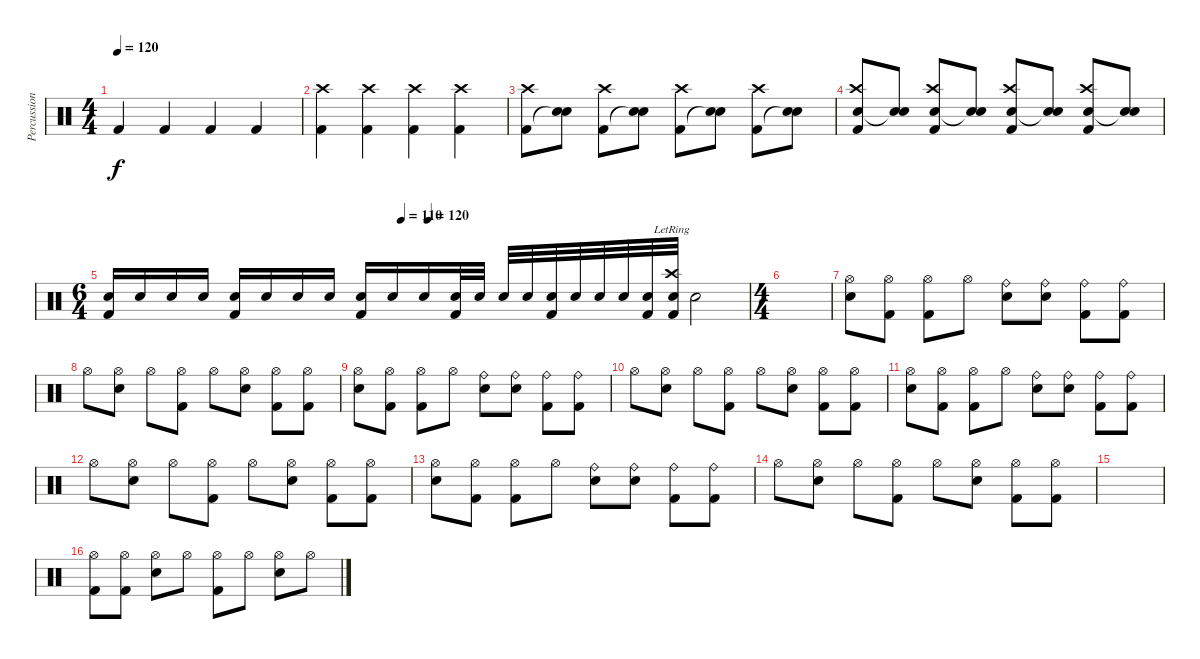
\track ("Percussion" "Percussion") {instrument percussion}
\staff {score}
\articulation defaults
\ts (4 4)
\tempo 120
\clef neutral
\ks c "Kick (hit) 2".4{dy f} "Kick (hit) 2".4 "Kick (hit) 2".4 "Kick (hit) 2".4
|
("Crash high (hit)" "Kick (hit) 2").4 ("Crash high (hit)" "Kick (hit) 2").4 ("Crash high (hit)" "Kick (hit) 2").4 ("Crash high (hit)" "Kick (hit) 2").4 |
("Crash high (hit)" "Kick (hit) 2").8 ("Electric Snare (hit)" "Snare (hit)"{t}).8 ("Crash high (hit)" "Kick (hit) 2").8 ("Electric Snare (hit)" "Snare (hit)"{t}).8 ("Crash high (hit)" "Kick (hit) 2").8 ("Electric Snare (hit)" "Snare (hit)"{t}).8 ("Crash high (hit)" "Kick (hit) 2").8 ("Electric Snare (hit)" "Snare (hit)"{t}).8 |
("Crash high (hit)" "Electric Snare (hit)" "Kick (hit) 2").8 ("Electric Snare (hit)" "Snare (hit)"{t}).8 ("Crash high (hit)" "Electric Snare (hit)" "Kick (hit) 2").8 ("Electric Snare (hit)" "Snare (hit)"{t}).8 ("Crash high (hit)" "Electric Snare (hit)" "Kick (hit) 2").8 ("Electric Snare (hit)" "Snare (hit)"{t}).8 ("Crash high (hit)" "Electric Snare (hit)" "Kick (hit) 2").8 ("Electric Snare (hit)" "Snare (hit)"{t}).8 |
\ts (6 4)
\tempo (110 0.4583333333333333)
\tempo (120 0.5)
("Electric Snare (hit)" "Kick (hit) 2").16 "Electric Snare (hit)".16 "Electric Snare (hit)".16 "Electric Snare (hit)".16 ("Electric Snare (hit)" "Kick (hit) 2").16 "Electric Snare (hit)".16 "Electric Snare (hit)".16 "Electric Snare (hit)".16 ("Electric Snare (hit)" "Kick (hit) 2").16 "Electric Snare (hit)".16 "Electric Snare (hit)".16 ("Electric Snare (hit)" "Kick (hit) 2").32 "Electric Snare (hit)".32 "Electric Snare (hit)".32 "Electric Snare (hit)".32 ("Electric Snare (hit)" "Kick (hit) 2").32 "Electric Snare (hit)".32 "Electric Snare (hit)".32 "Electric Snare (hit)".32 ("Electric Snare (hit)" "Kick (hit) 2").32 ("Crash high (hit)"{lr} "Electric Snare (hit)" "Kick (hit) 2").32 "Snare (hit)"{x}.2 |
\ts (4 4)
|
("Hi-Hat (open)" "Snare (hit) 2").8 ("Hi-Hat (open)" "Kick (hit) 2").8 ("Hi-Hat (open)" "Kick (hit) 2").8 "Hi-Hat (open)".8 ("Ride (bell)" "Snare (hit) 2").8 ("Ride (bell)" "Snare (hit) 2").8 ("Ride (bell)" "Kick (hit) 2").8 ("Ride (bell)" "Kick (hit) 2").8 |
"Hi-Hat (open)".8 ("Hi-Hat (open)" "Snare (hit) 2").8 "Hi-Hat (open)".8 ("Hi-Hat (open)" "Kick (hit) 2").8 "Hi-Hat (open)".8 ("Hi-Hat (open)" "Snare (hit) 2").8 ("Hi-Hat (open)" "Kick (hit) 2").8 ("Hi-Hat (open)" "Kick (hit) 2").8 |
("Hi-Hat (open)" "Snare (hit) 2").8 ("Hi-Hat (open)" "Kick (hit) 2").8 ("Hi-Hat (open)" "Kick (hit) 2").8 "Hi-Hat (open)".8 ("Ride (bell)" "Snare (hit) 2").8 ("Ride (bell)" "Snare (hit) 2").8 ("Ride (bell)" "Kick (hit) 2").8 ("Ride (bell)" "Kick (hit) 2").8 |
"Hi-Hat (open)".8 ("Hi-Hat (open)" "Snare (hit) 2").8 "Hi-Hat (open)".8 ("Hi-Hat (open)" "Kick (hit) 2").8 "Hi-Hat (open)".8 ("Hi-Hat (open)" "Snare (hit) 2").8 ("Hi-Hat (open)" "Kick (hit) 2").8 ("Hi-Hat (open)" "Kick (hit) 2").8 |
("Hi-Hat (open)" "Snare (hit) 2").8 ("Hi-Hat (open)" "Kick (hit) 2").8 ("Hi-Hat (open)" "Kick (hit) 2").8 "Hi-Hat (open)".8 ("Ride (bell)" "Snare (hit) 2").8 ("Ride (bell)" "Snare (hit) 2").8 ("Ride (bell)" "Kick (hit) 2").8 ("Ride (bell)" "Kick (hit) 2").8 |
"Hi-Hat (open)".8 ("Hi-Hat (open)" "Snare (hit) 2").8 "Hi-Hat (open)".8 ("Hi-Hat (open)" "Kick (hit) 2").8 "Hi-Hat (open)".8 ("Hi-Hat (open)" "Snare (hit) 2").8 ("Hi-Hat (open)" "Kick (hit) 2").8 ("Hi-Hat (open)" "Kick (hit) 2").8 |
("Hi-Hat (open)" "Snare (hit) 2").8 ("Hi-Hat (open)" "Kick (hit) 2").8 ("Hi-Hat (open)" "Kick (hit) 2").8 "Hi-Hat (open)".8 ("Ride (bell)" "Snare (hit) 2").8 ("Ride (bell)" "Snare (hit) 2").8 ("Ride (bell)" "Kick (hit) 2").8 ("Ride (bell)" "Kick (hit) 2").8 |
"Hi-Hat (open)".8 ("Hi-Hat (open)" "Snare (hit) 2").8 "Hi-Hat (open)".8 ("Hi-Hat (open)" "Kick (hit) 2").8 "Hi-Hat (open)".8 ("Hi-Hat (open)" "Snare (hit) 2").8 ("Hi-Hat (open)" "Kick (hit) 2").8 ("Hi-Hat (open)" "Kick (hit) 2").8 |
|
("Hi-Hat (open)" "Kick (hit) 2").8 ("Hi-Hat (open)" "Kick (hit) 2").8 ("Hi-Hat (open)" "Snare (hit) 2").8 "Hi-Hat (open)".8 ("Hi-Hat (open)" "Kick (hit) 2").8 "Hi-Hat (open)".8 ("Hi-Hat (open)" "Snare (hit) 2").8 "Hi-Hat (open)".8
